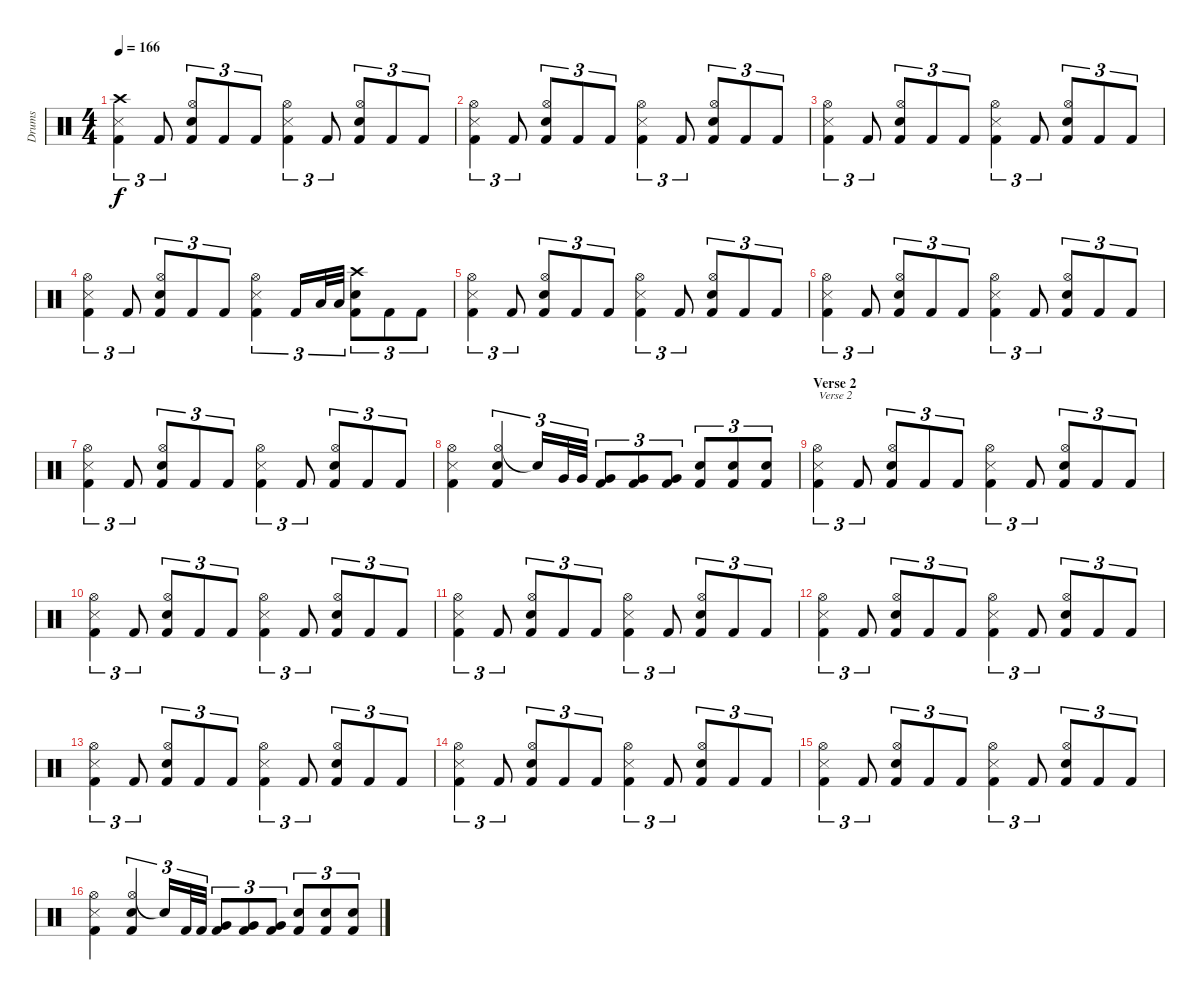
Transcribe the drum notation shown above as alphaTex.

\track ("Drums" "Drums") {instrument percussion}
\staff {score}
\articulation defaults
\ts (4 4)
\tempo 166
\clef neutral
\ks c
("Crash high (hit)" "Snare (side stick) 3" "Kick (hit) 2").4{tu (3 2) dy f} "Kick (hit) 2".8{tu (3 2)} ("Hi-Hat (open)" "Electric Snare (hit)" "Kick (hit) 2").8{tu (3 2)} "Kick (hit) 2".8{tu (3 2)} "Kick (hit) 2".8{tu (3 2)} ("Hi-Hat (open)" "Snare (side stick) 3" "Kick (hit) 2").4{tu (3 2)} "Kick (hit) 2".8{tu (3 2)} ("Hi-Hat (open)" "Electric Snare (hit)" "Kick (hit) 2").8{tu (3 2)} "Kick (hit) 2".8{tu (3 2)} "Kick (hit) 2".8{tu (3 2)} |
("Hi-Hat (open)" "Snare (side stick) 3" "Kick (hit) 2").4{tu (3 2)} "Kick (hit) 2".8{tu (3 2)} ("Hi-Hat (open)" "Electric Snare (hit)" "Kick (hit) 2").8{tu (3 2)} "Kick (hit) 2".8{tu (3 2)} "Kick (hit) 2".8{tu (3 2)} ("Hi-Hat (open)" "Snare (side stick) 3" "Kick (hit) 2").4{tu (3 2)} "Kick (hit) 2".8{tu (3 2)} ("Hi-Hat (open)" "Electric Snare (hit)" "Kick (hit) 2").8{tu (3 2)} "Kick (hit) 2".8{tu (3 2)} "Kick (hit) 2".8{tu (3 2)} |
("Hi-Hat (open)" "Snare (side stick) 3" "Kick (hit) 2").4{tu (3 2)} "Kick (hit) 2".8{tu (3 2)} ("Hi-Hat (open)" "Electric Snare (hit)" "Kick (hit) 2").8{tu (3 2)} "Kick (hit) 2".8{tu (3 2)} "Kick (hit) 2".8{tu (3 2)} ("Hi-Hat (open)" "Snare (side stick) 3" "Kick (hit) 2").4{tu (3 2)} "Kick (hit) 2".8{tu (3 2)} ("Hi-Hat (open)" "Electric Snare (hit)" "Kick (hit) 2").8{tu (3 2)} "Kick (hit) 2".8{tu (3 2)} "Kick (hit) 2".8{tu (3 2)} |
("Hi-Hat (open)" "Snare (side stick) 3" "Kick (hit) 2").4{tu (3 2)} "Kick (hit) 2".8{tu (3 2)} ("Hi-Hat (open)" "Electric Snare (hit)" "Kick (hit) 2").8{tu (3 2)} "Kick (hit) 2".8{tu (3 2)} "Kick (hit) 2".8{tu (3 2)} ("Hi-Hat (open)" "Snare (side stick) 3" "Kick (hit) 2").4{tu (3 2)} "Kick (hit) 2".16{tu (3 2)} "Low Tom (hit)".32{tu (3 2)} "Low Tom (hit)".32{tu (3 2)} ("Crash high (hit)" "Electric Snare (hit)" "Kick (hit) 2").8{tu (3 2)} "Kick (hit) 2".8{tu (3 2)} "Kick (hit) 2".8{tu (3 2)} |
("Hi-Hat (open)" "Snare (side stick) 3" "Kick (hit) 2").4{tu (3 2)} "Kick (hit) 2".8{tu (3 2)} ("Hi-Hat (open)" "Electric Snare (hit)" "Kick (hit) 2").8{tu (3 2)} "Kick (hit) 2".8{tu (3 2)} "Kick (hit) 2".8{tu (3 2)} ("Hi-Hat (open)" "Snare (side stick) 3" "Kick (hit) 2").4{tu (3 2)} "Kick (hit) 2".8{tu (3 2)} ("Hi-Hat (open)" "Electric Snare (hit)" "Kick (hit) 2").8{tu (3 2)} "Kick (hit) 2".8{tu (3 2)} "Kick (hit) 2".8{tu (3 2)} |
("Hi-Hat (open)" "Snare (side stick) 3" "Kick (hit) 2").4{tu (3 2)} "Kick (hit) 2".8{tu (3 2)} ("Hi-Hat (open)" "Electric Snare (hit)" "Kick (hit) 2").8{tu (3 2)} "Kick (hit) 2".8{tu (3 2)} "Kick (hit) 2".8{tu (3 2)} ("Hi-Hat (open)" "Snare (side stick) 3" "Kick (hit) 2").4{tu (3 2)} "Kick (hit) 2".8{tu (3 2)} ("Hi-Hat (open)" "Electric Snare (hit)" "Kick (hit) 2").8{tu (3 2)} "Kick (hit) 2".8{tu (3 2)} "Kick (hit) 2".8{tu (3 2)} |
("Hi-Hat (open)" "Snare (side stick) 3" "Kick (hit) 2").4{tu (3 2)} "Kick (hit) 2".8{tu (3 2)} ("Hi-Hat (open)" "Electric Snare (hit)" "Kick (hit) 2").8{tu (3 2)} "Kick (hit) 2".8{tu (3 2)} "Kick (hit) 2".8{tu (3 2)} ("Hi-Hat (open)" "Snare (side stick) 3" "Kick (hit) 2").4{tu (3 2)} "Kick (hit) 2".8{tu (3 2)} ("Hi-Hat (open)" "Electric Snare (hit)" "Kick (hit) 2").8{tu (3 2)} "Kick (hit) 2".8{tu (3 2)} "Kick (hit) 2".8{tu (3 2)} |
("Hi-Hat (open)" "Snare (side stick) 3" "Kick (hit) 2").4 ("Hi-Hat (open)" "Electric Snare (hit)" "Kick (hit) 2").4{tu (3 2)} "Snare (hit)"{t}.16{tu (3 2)} "Very Low Tom (hit)".32{tu (3 2)} "Very Low Tom (hit)".32{tu (3 2)} ("Very Low Tom (hit)" "Kick (hit) 2").8{tu (3 2)} ("Very Low Tom (hit)" "Kick (hit) 2").8{tu (3 2)} ("Very Low Tom (hit)" "Kick (hit) 2").8{tu (3 2)} ("Electric Snare (hit)" "Kick (hit) 2").8{tu (3 2)} ("Electric Snare (hit)" "Kick (hit) 2").8{tu (3 2)} ("Electric Snare (hit)" "Kick (hit) 2").8{tu (3 2)} |
\section ("" "Verse 2")
("Hi-Hat (open)" "Snare (side stick) 3" "Kick (hit) 2").4{tu (3 2) txt "Verse 2"} "Kick (hit) 2".8{tu (3 2)} ("Hi-Hat (open)" "Electric Snare (hit)" "Kick (hit) 2").8{tu (3 2)} "Kick (hit) 2".8{tu (3 2)} "Kick (hit) 2".8{tu (3 2)} ("Hi-Hat (open)" "Snare (side stick) 3" "Kick (hit) 2").4{tu (3 2)} "Kick (hit) 2".8{tu (3 2)} ("Hi-Hat (open)" "Electric Snare (hit)" "Kick (hit) 2").8{tu (3 2)} "Kick (hit) 2".8{tu (3 2)} "Kick (hit) 2".8{tu (3 2)} |
("Hi-Hat (open)" "Snare (side stick) 3" "Kick (hit) 2").4{tu (3 2)} "Kick (hit) 2".8{tu (3 2)} ("Hi-Hat (open)" "Electric Snare (hit)" "Kick (hit) 2").8{tu (3 2)} "Kick (hit) 2".8{tu (3 2)} "Kick (hit) 2".8{tu (3 2)} ("Hi-Hat (open)" "Snare (side stick) 3" "Kick (hit) 2").4{tu (3 2)} "Kick (hit) 2".8{tu (3 2)} ("Hi-Hat (open)" "Electric Snare (hit)" "Kick (hit) 2").8{tu (3 2)} "Kick (hit) 2".8{tu (3 2)} "Kick (hit) 2".8{tu (3 2)} |
("Hi-Hat (open)" "Snare (side stick) 3" "Kick (hit) 2").4{tu (3 2)} "Kick (hit) 2".8{tu (3 2)} ("Hi-Hat (open)" "Electric Snare (hit)" "Kick (hit) 2").8{tu (3 2)} "Kick (hit) 2".8{tu (3 2)} "Kick (hit) 2".8{tu (3 2)} ("Hi-Hat (open)" "Snare (side stick) 3" "Kick (hit) 2").4{tu (3 2)} "Kick (hit) 2".8{tu (3 2)} ("Hi-Hat (open)" "Electric Snare (hit)" "Kick (hit) 2").8{tu (3 2)} "Kick (hit) 2".8{tu (3 2)} "Kick (hit) 2".8{tu (3 2)} |
("Hi-Hat (open)" "Snare (side stick) 3" "Kick (hit) 2").4{tu (3 2)} "Kick (hit) 2".8{tu (3 2)} ("Hi-Hat (open)" "Electric Snare (hit)" "Kick (hit) 2").8{tu (3 2)} "Kick (hit) 2".8{tu (3 2)} "Kick (hit) 2".8{tu (3 2)} ("Hi-Hat (open)" "Snare (side stick) 3" "Kick (hit) 2").4{tu (3 2)} "Kick (hit) 2".8{tu (3 2)} ("Hi-Hat (open)" "Electric Snare (hit)" "Kick (hit) 2").8{tu (3 2)} "Kick (hit) 2".8{tu (3 2)} "Kick (hit) 2".8{tu (3 2)} |
("Hi-Hat (open)" "Snare (side stick) 3" "Kick (hit) 2").4{tu (3 2)} "Kick (hit) 2".8{tu (3 2)} ("Hi-Hat (open)" "Electric Snare (hit)" "Kick (hit) 2").8{tu (3 2)} "Kick (hit) 2".8{tu (3 2)} "Kick (hit) 2".8{tu (3 2)} ("Hi-Hat (open)" "Snare (side stick) 3" "Kick (hit) 2").4{tu (3 2)} "Kick (hit) 2".8{tu (3 2)} ("Hi-Hat (open)" "Electric Snare (hit)" "Kick (hit) 2").8{tu (3 2)} "Kick (hit) 2".8{tu (3 2)} "Kick (hit) 2".8{tu (3 2)} |
("Hi-Hat (open)" "Snare (side stick) 3" "Kick (hit) 2").4{tu (3 2)} "Kick (hit) 2".8{tu (3 2)} ("Hi-Hat (open)" "Electric Snare (hit)" "Kick (hit) 2").8{tu (3 2)} "Kick (hit) 2".8{tu (3 2)} "Kick (hit) 2".8{tu (3 2)} ("Hi-Hat (open)" "Snare (side stick) 3" "Kick (hit) 2").4{tu (3 2)} "Kick (hit) 2".8{tu (3 2)} ("Hi-Hat (open)" "Electric Snare (hit)" "Kick (hit) 2").8{tu (3 2)} "Kick (hit) 2".8{tu (3 2)} "Kick (hit) 2".8{tu (3 2)} |
("Hi-Hat (open)" "Snare (side stick) 3" "Kick (hit) 2").4{tu (3 2)} "Kick (hit) 2".8{tu (3 2)} ("Hi-Hat (open)" "Electric Snare (hit)" "Kick (hit) 2").8{tu (3 2)} "Kick (hit) 2".8{tu (3 2)} "Kick (hit) 2".8{tu (3 2)} ("Hi-Hat (open)" "Snare (side stick) 3" "Kick (hit) 2").4{tu (3 2)} "Kick (hit) 2".8{tu (3 2)} ("Hi-Hat (open)" "Electric Snare (hit)" "Kick (hit) 2").8{tu (3 2)} "Kick (hit) 2".8{tu (3 2)} "Kick (hit) 2".8{tu (3 2)} |
("Hi-Hat (open)" "Snare (side stick) 3" "Kick (hit) 2").4 ("Hi-Hat (open)" "Electric Snare (hit)" "Kick (hit) 2").4{tu (3 2)} "Snare (hit)"{t}.16{tu (3 2)} "Kick (hit) 2".32{tu (3 2)} "Kick (hit) 2".32{tu (3 2)} ("Very Low Tom (hit)" "Kick (hit) 2").8{tu (3 2)} ("Very Low Tom (hit)" "Kick (hit) 2").8{tu (3 2)} ("Very Low Tom (hit)" "Kick (hit) 2").8{tu (3 2)} ("Electric Snare (hit)" "Kick (hit) 2").8{tu (3 2)} ("Electric Snare (hit)" "Kick (hit) 2").8{tu (3 2)} ("Electric Snare (hit)" "Kick (hit) 2").8{tu (3 2)}
